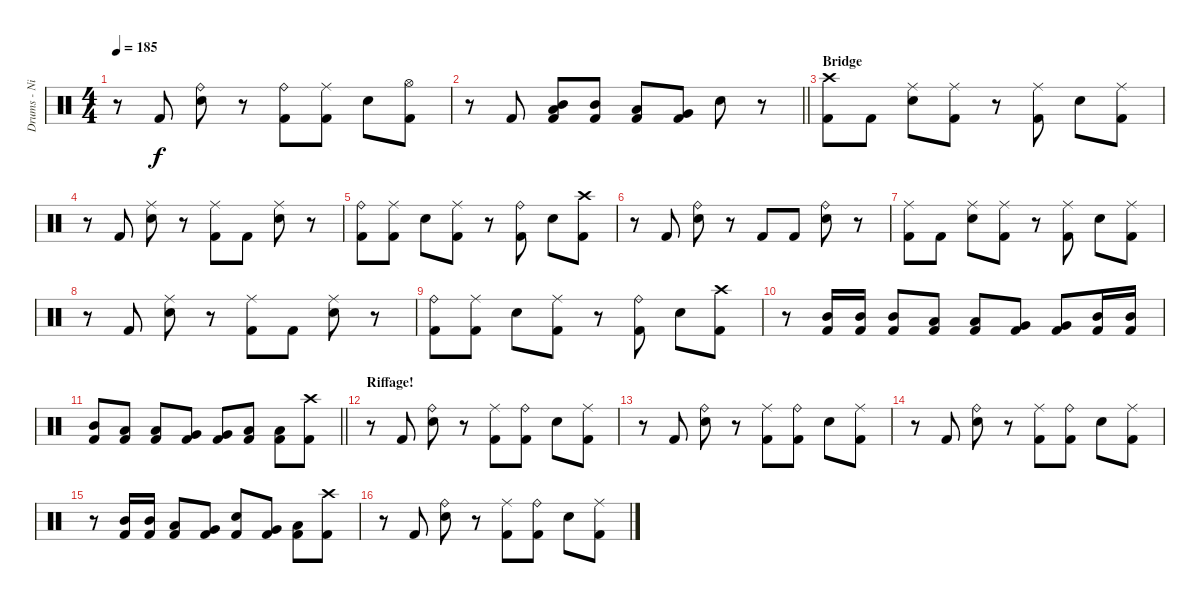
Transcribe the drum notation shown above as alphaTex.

\track ("Drums - Nicko" "Drums - Ni") {instrument percussion}
\staff {score}
\articulation defaults
\ts (4 4)
\tempo 185
\clef neutral
\ks c
r.8{dy f} "Kick (hit) 2".8 ("Ride (bell)" "Snare (hit) 2").8 r.8 ("Ride (bell)" "Kick (hit) 2").8 ("Ride (middle)" "Kick (hit) 2").8 "Snare (hit) 2".8 ("Hi-Hat (open)" "Kick (hit) 2").8 |
\barLineRight lightlight
r.8 "Kick (hit) 2".8 ("Mid Tom (hit)" "Low Floor Tom (hit)" "Kick (hit) 2").8 ("Mid Tom (hit)" "Kick (hit) 2").8 ("Low Tom (hit)" "Kick (hit) 2").8 ("Very Low Tom (hit)" "Kick (hit) 2").8 "Snare (hit) 2".8 r.8 |
\section ("" "Bridge")
("Crash high (hit)" "Kick (hit) 2").8 "Kick (hit) 2".8 ("Ride (middle)" "Snare (hit) 2").8 ("Ride (middle)" "Kick (hit) 2").8 r.8 ("Ride (middle)" "Kick (hit) 2").8 "Snare (hit) 2".8 ("Ride (middle)" "Kick (hit) 2").8 |
r.8 "Kick (hit) 2".8 ("Ride (middle)" "Snare (hit) 2").8 r.8 ("Ride (middle)" "Kick (hit) 2").8 "Kick (hit) 2".8 ("Ride (middle)" "Snare (hit) 2").8 r.8 |
("Ride (bell)" "Kick (hit) 2").8 ("Ride (middle)" "Kick (hit) 2").8 "Snare (hit) 2".8 ("Ride (middle)" "Kick (hit) 2").8 r.8 ("Ride (bell)" "Kick (hit) 2").8 "Snare (hit) 2".8 ("Crash high (hit)" "Kick (hit) 2").8 |
r.8 "Kick (hit) 2".8 ("Ride (bell)" "Snare (hit) 2").8 r.8 "Kick (hit) 2".8 "Kick (hit) 2".8 ("Ride (bell)" "Snare (hit) 2").8 r.8 |
("Ride (middle)" "Kick (hit) 2").8 "Kick (hit) 2".8 ("Ride (middle)" "Snare (hit) 2").8 ("Ride (middle)" "Kick (hit) 2").8 r.8 ("Ride (middle)" "Kick (hit) 2").8 "Snare (hit) 2".8 ("Ride (middle)" "Kick (hit) 2").8 |
r.8 "Kick (hit) 2".8 ("Ride (middle)" "Snare (hit) 2").8 r.8 ("Ride (middle)" "Kick (hit) 2").8 "Kick (hit) 2".8 ("Ride (middle)" "Snare (hit) 2").8 r.8 |
("Ride (bell)" "Kick (hit) 2").8 ("Ride (middle)" "Kick (hit) 2").8 "Snare (hit) 2".8 ("Ride (middle)" "Kick (hit) 2").8 r.8 ("Ride (bell)" "Kick (hit) 2").8 "Snare (hit) 2".8 ("Crash high (hit)" "Kick (hit) 2").8 |
r.8 ("Mid Tom (hit)" "Kick (hit) 2").16 ("Mid Tom (hit)" "Kick (hit) 2").16 ("Mid Tom (hit)" "Kick (hit) 2").8 ("Low Tom (hit)" "Kick (hit) 2").8 ("Low Tom (hit)" "Kick (hit) 2").8 ("Very Low Tom (hit)" "Kick (hit) 2").8 ("Very Low Tom (hit)" "Kick (hit) 2").8 ("Mid Tom (hit)" "Kick (hit) 2").16 ("Mid Tom (hit)" "Kick (hit) 2").16 |
\barLineRight lightlight
("Mid Tom (hit)" "Kick (hit) 2").8 ("Low Tom (hit)" "Kick (hit) 2").8 ("Low Tom (hit)" "Kick (hit) 2").8 ("Very Low Tom (hit)" "Kick (hit) 2").8 ("Very Low Tom (hit)" "Kick (hit) 2").8 ("Low Floor Tom (hit)" "Kick (hit) 2").8 ("Low Floor Tom (hit)" "Kick (hit) 2").8 ("Crash high (hit)" "Kick (hit) 2").8 |
\section ("" "Riffage!")
r.8 "Kick (hit) 2".8 ("Ride (bell)" "Snare (hit) 2").8 r.8 ("Ride (middle)" "Kick (hit) 2").8 ("Ride (bell)" "Kick (hit) 2").8 "Snare (hit) 2".8 ("Ride (middle)" "Kick (hit) 2").8 |
r.8 "Kick (hit) 2".8 ("Ride (bell)" "Snare (hit) 2").8 r.8 ("Ride (middle)" "Kick (hit) 2").8 ("Ride (bell)" "Kick (hit) 2").8 "Snare (hit) 2".8 ("Ride (middle)" "Kick (hit) 2").8 |
r.8 "Kick (hit) 2".8 ("Ride (bell)" "Snare (hit) 2").8 r.8 ("Ride (middle)" "Kick (hit) 2").8 ("Ride (bell)" "Kick (hit) 2").8 "Snare (hit) 2".8 ("Ride (middle)" "Kick (hit) 2").8 |
r.8 ("Mid Tom (hit)" "Kick (hit) 2").16 ("Mid Tom (hit)" "Kick (hit) 2").16 ("Low Tom (hit)" "Kick (hit) 2").8 ("Very Low Tom (hit)" "Kick (hit) 2").8 ("Snare (hit) 2" "Kick (hit) 2").8 ("Very Low Tom (hit)" "Kick (hit) 2").8 ("Low Floor Tom (hit)" "Kick (hit) 2").8 ("Crash high (hit)" "Kick (hit) 2").8 |
r.8 "Kick (hit) 2".8 ("Ride (bell)" "Snare (hit) 2").8 r.8 ("Ride (middle)" "Kick (hit) 2").8 ("Ride (bell)" "Kick (hit) 2").8 "Snare (hit) 2".8 ("Ride (middle)" "Kick (hit) 2").8
